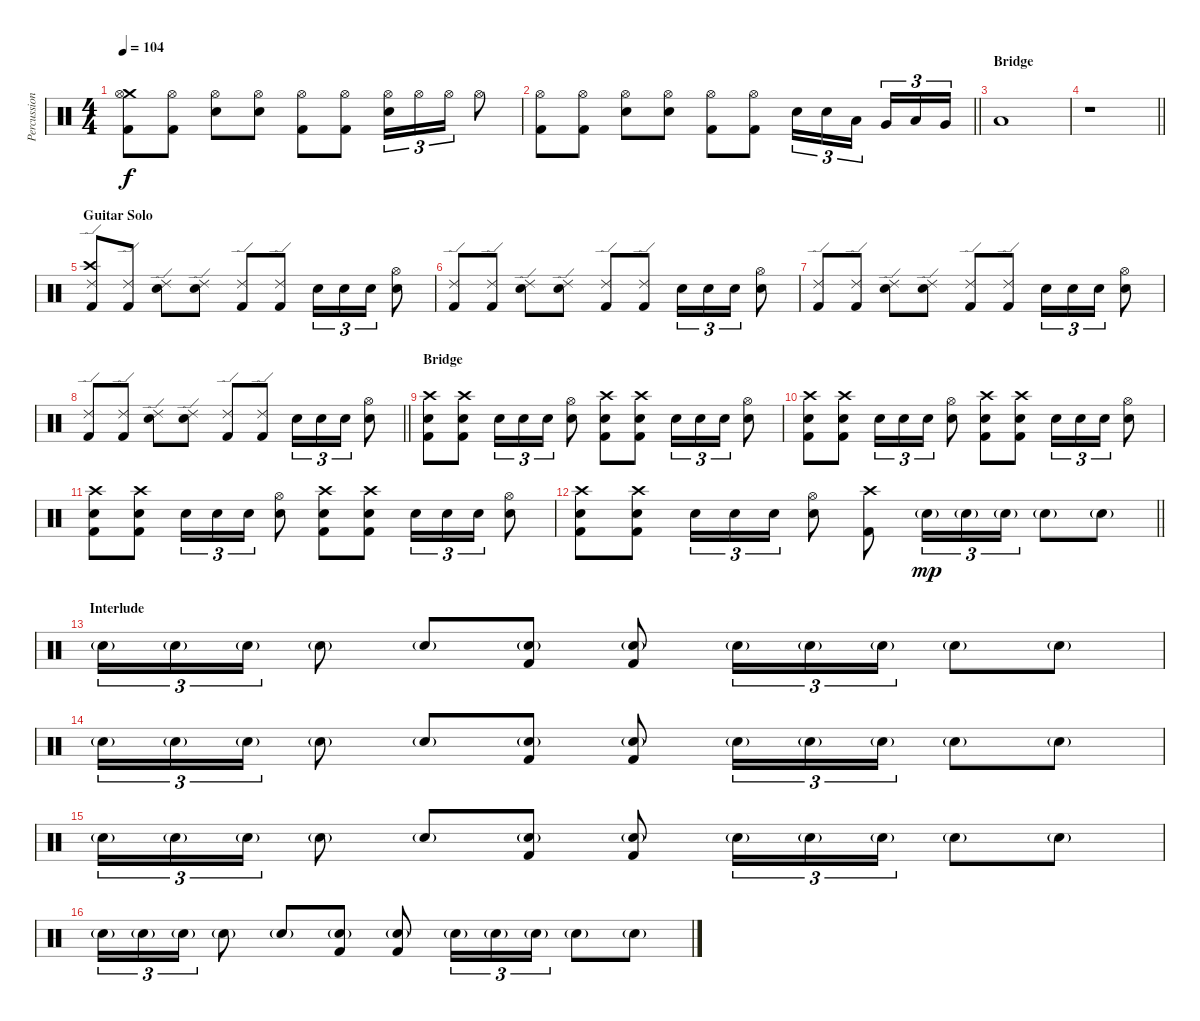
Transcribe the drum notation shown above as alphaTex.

\track ("Percussion" "Percussion") {instrument percussion}
\staff {score}
\articulation defaults
\ts (4 4)
\tempo 104
\clef neutral
\ks c
("Crash medium (hit)" "Hi-Hat (open)" "Kick (hit) 2").8{dy f} ("Hi-Hat (open)" "Kick (hit) 2").8 ("Hi-Hat (open)" "Snare (hit) 2").8 ("Hi-Hat (open)" "Snare (hit) 2").8 ("Hi-Hat (open)" "Kick (hit) 2").8 ("Hi-Hat (open)" "Kick (hit) 2").8 ("Hi-Hat (open)" "Snare (hit) 2").16{tu (3 2)} "Hi-Hat (open)".16{tu (3 2)} "Hi-Hat (open)".16{tu (3 2)} "Hi-Hat (open)".8 |
\barLineRight lightlight
("Hi-Hat (open)" "Kick (hit) 2").8 ("Hi-Hat (open)" "Kick (hit) 2").8 ("Hi-Hat (open)" "Snare (hit) 2").8 ("Hi-Hat (open)" "Snare (hit) 2").8 ("Hi-Hat (open)" "Kick (hit) 2").8 ("Hi-Hat (open)" "Kick (hit) 2").8 "Snare (hit) 2".16{tu (3 2)} "Snare (hit) 2".16{tu (3 2)} "Low Tom (hit)".16{tu (3 2) beam splitsecondary} "Very Low Tom (hit)".16{tu (3 2)} "Low Tom (hit)".16{tu (3 2)} "Very Low Tom (hit)".16{tu (3 2)} |
\section ("" "Bridge")
"Low Floor Tom (hit)".1 |
\barLineRight lightlight
r.1 |
\section ("" "Guitar Solo")
("Crash high (hit)" "Ride (edge) 2" "Kick (hit) 2").8 ("Ride (edge) 2" "Kick (hit) 2").8 ("Ride (edge) 2" "Snare (hit) 2").8 ("Ride (edge) 2" "Snare (hit) 2").8 ("Ride (edge) 2" "Kick (hit) 2").8 ("Ride (edge) 2" "Kick (hit) 2").8 "Snare (hit) 2".16{tu (3 2)} "Snare (hit) 2".16{tu (3 2)} "Snare (hit) 2".16{tu (3 2)} ("Hi-Hat (open)" "Snare (hit) 2").8 |
("Ride (edge) 2" "Kick (hit) 2").8 ("Ride (edge) 2" "Kick (hit) 2").8 ("Ride (edge) 2" "Snare (hit) 2").8 ("Ride (edge) 2" "Snare (hit) 2").8 ("Ride (edge) 2" "Kick (hit) 2").8 ("Ride (edge) 2" "Kick (hit) 2").8 "Snare (hit) 2".16{tu (3 2)} "Snare (hit) 2".16{tu (3 2)} "Snare (hit) 2".16{tu (3 2)} ("Hi-Hat (open)" "Snare (hit) 2").8 |
("Ride (edge) 2" "Kick (hit) 2").8 ("Ride (edge) 2" "Kick (hit) 2").8 ("Ride (edge) 2" "Snare (hit) 2").8 ("Ride (edge) 2" "Snare (hit) 2").8 ("Ride (edge) 2" "Kick (hit) 2").8 ("Ride (edge) 2" "Kick (hit) 2").8 "Snare (hit) 2".16{tu (3 2)} "Snare (hit) 2".16{tu (3 2)} "Snare (hit) 2".16{tu (3 2)} ("Hi-Hat (open)" "Snare (hit) 2").8 |
\barLineRight lightlight
("Ride (edge) 2" "Kick (hit) 2").8 ("Ride (edge) 2" "Kick (hit) 2").8 ("Ride (edge) 2" "Snare (hit) 2").8 ("Ride (edge) 2" "Snare (hit) 2").8 ("Ride (edge) 2" "Kick (hit) 2").8 ("Ride (edge) 2" "Kick (hit) 2").8 "Snare (hit) 2".16{tu (3 2)} "Snare (hit) 2".16{tu (3 2)} "Snare (hit) 2".16{tu (3 2)} ("Hi-Hat (open)" "Snare (hit) 2").8 |
\section ("" "Bridge")
("Crash high (hit)" "Snare (hit) 2" "Kick (hit) 2").8 ("Crash high (hit)" "Snare (hit) 2" "Kick (hit) 2").8 "Snare (hit) 2".16{tu (3 2)} "Snare (hit) 2".16{tu (3 2)} "Snare (hit) 2".16{tu (3 2)} ("Hi-Hat (open)" "Snare (hit) 2").8 ("Crash high (hit)" "Snare (hit) 2" "Kick (hit) 2").8 ("Crash high (hit)" "Snare (hit) 2" "Kick (hit) 2").8 "Snare (hit) 2".16{tu (3 2)} "Snare (hit) 2".16{tu (3 2)} "Snare (hit) 2".16{tu (3 2)} ("Hi-Hat (open)" "Snare (hit) 2").8 |
("Crash high (hit)" "Snare (hit) 2" "Kick (hit) 2").8 ("Crash high (hit)" "Snare (hit) 2" "Kick (hit) 2").8 "Snare (hit) 2".16{tu (3 2)} "Snare (hit) 2".16{tu (3 2)} "Snare (hit) 2".16{tu (3 2)} ("Hi-Hat (open)" "Snare (hit) 2").8 ("Crash high (hit)" "Snare (hit) 2" "Kick (hit) 2").8 ("Crash high (hit)" "Snare (hit) 2" "Kick (hit) 2").8 "Snare (hit) 2".16{tu (3 2)} "Snare (hit) 2".16{tu (3 2)} "Snare (hit) 2".16{tu (3 2)} ("Hi-Hat (open)" "Snare (hit) 2").8 |
("Crash high (hit)" "Snare (hit) 2" "Kick (hit) 2").8 ("Crash high (hit)" "Snare (hit) 2" "Kick (hit) 2").8 "Snare (hit) 2".16{tu (3 2)} "Snare (hit) 2".16{tu (3 2)} "Snare (hit) 2".16{tu (3 2)} ("Hi-Hat (open)" "Snare (hit) 2").8 ("Crash high (hit)" "Snare (hit) 2" "Kick (hit) 2").8 ("Crash high (hit)" "Snare (hit) 2" "Kick (hit) 2").8 "Snare (hit) 2".16{tu (3 2)} "Snare (hit) 2".16{tu (3 2)} "Snare (hit) 2".16{tu (3 2)} ("Hi-Hat (open)" "Snare (hit) 2").8 |
\barLineRight lightlight
("Crash high (hit)" "Snare (hit) 2" "Kick (hit) 2").8 ("Crash high (hit)" "Snare (hit) 2" "Kick (hit) 2").8 "Snare (hit) 2".16{tu (3 2)} "Snare (hit) 2".16{tu (3 2)} "Snare (hit) 2".16{tu (3 2)} ("Hi-Hat (open)" "Snare (hit) 2").8 ("Crash high (hit)" "Kick (hit) 2").8 "Electric Snare (hit)"{g}.16{tu (3 2) dy mp} "Electric Snare (hit)"{g}.16{tu (3 2)} "Electric Snare (hit)"{g}.16{tu (3 2)} "Electric Snare (hit)"{g}.8 "Electric Snare (hit)"{g}.8 |
\section ("" "Interlude")
"Electric Snare (hit)"{g}.16{tu (3 2)} "Electric Snare (hit)"{g}.16{tu (3 2)} "Electric Snare (hit)"{g}.16{tu (3 2)} "Electric Snare (hit)"{g}.8 "Electric Snare (hit)"{g}.8 ("Electric Snare (hit)"{g} "Kick (hit) 2").8 ("Electric Snare (hit)"{g} "Kick (hit) 2").8 "Electric Snare (hit)"{g}.16{tu (3 2)} "Electric Snare (hit)"{g}.16{tu (3 2)} "Electric Snare (hit)"{g}.16{tu (3 2)} "Electric Snare (hit)"{g}.8 "Electric Snare (hit)"{g}.8 |
"Electric Snare (hit)"{g}.16{tu (3 2)} "Electric Snare (hit)"{g}.16{tu (3 2)} "Electric Snare (hit)"{g}.16{tu (3 2)} "Electric Snare (hit)"{g}.8 "Electric Snare (hit)"{g}.8 ("Electric Snare (hit)"{g} "Kick (hit) 2").8 ("Electric Snare (hit)"{g} "Kick (hit) 2").8 "Electric Snare (hit)"{g}.16{tu (3 2)} "Electric Snare (hit)"{g}.16{tu (3 2)} "Electric Snare (hit)"{g}.16{tu (3 2)} "Electric Snare (hit)"{g}.8 "Electric Snare (hit)"{g}.8 |
"Electric Snare (hit)"{g}.16{tu (3 2)} "Electric Snare (hit)"{g}.16{tu (3 2)} "Electric Snare (hit)"{g}.16{tu (3 2)} "Electric Snare (hit)"{g}.8 "Electric Snare (hit)"{g}.8 ("Electric Snare (hit)"{g} "Kick (hit) 2").8 ("Electric Snare (hit)"{g} "Kick (hit) 2").8 "Electric Snare (hit)"{g}.16{tu (3 2)} "Electric Snare (hit)"{g}.16{tu (3 2)} "Electric Snare (hit)"{g}.16{tu (3 2)} "Electric Snare (hit)"{g}.8 "Electric Snare (hit)"{g}.8 |
"Electric Snare (hit)"{g}.16{tu (3 2)} "Electric Snare (hit)"{g}.16{tu (3 2)} "Electric Snare (hit)"{g}.16{tu (3 2)} "Electric Snare (hit)"{g}.8 "Electric Snare (hit)"{g}.8 ("Electric Snare (hit)"{g} "Kick (hit) 2").8 ("Electric Snare (hit)"{g} "Kick (hit) 2").8 "Electric Snare (hit)"{g}.16{tu (3 2)} "Electric Snare (hit)"{g}.16{tu (3 2)} "Electric Snare (hit)"{g}.16{tu (3 2)} "Electric Snare (hit)"{g}.8 "Electric Snare (hit)"{g}.8
